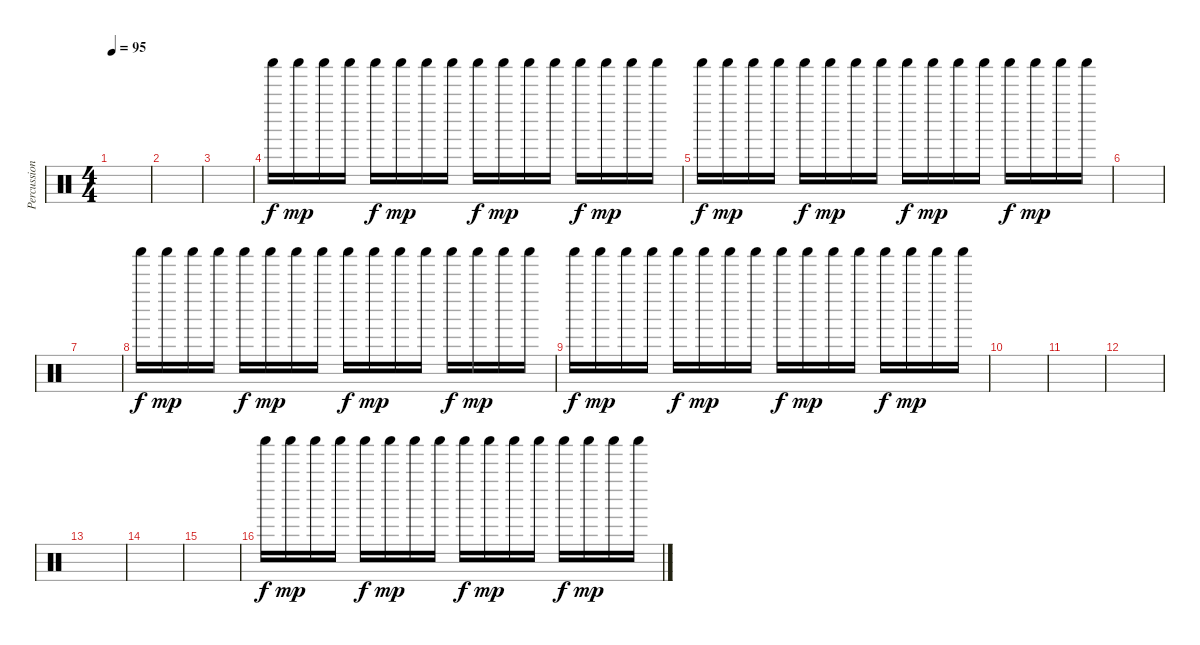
\track ("Percussion" "Percussion") {instrument percussion}
\staff {score}
\articulation defaults
\ts (4 4)
\tempo 95
\clef neutral
\ks c
|
|
|
"Shaker (hit)".16 "Shaker (hit)".16{dy mp} "Shaker (hit)".16 "Shaker (hit)".16 "Shaker (hit)".16{dy f} "Shaker (hit)".16{dy mp} "Shaker (hit)".16 "Shaker (hit)".16 "Shaker (hit)".16{dy f} "Shaker (hit)".16{dy mp} "Shaker (hit)".16 "Shaker (hit)".16 "Shaker (hit)".16{dy f} "Shaker (hit)".16{dy mp} "Shaker (hit)".16 "Shaker (hit)".16 |
"Shaker (hit)".16{dy f} "Shaker (hit)".16{dy mp} "Shaker (hit)".16 "Shaker (hit)".16 "Shaker (hit)".16{dy f} "Shaker (hit)".16{dy mp} "Shaker (hit)".16 "Shaker (hit)".16 "Shaker (hit)".16{dy f} "Shaker (hit)".16{dy mp} "Shaker (hit)".16 "Shaker (hit)".16 "Shaker (hit)".16{dy f} "Shaker (hit)".16{dy mp} "Shaker (hit)".16 "Shaker (hit)".16 |
|
|
"Shaker (hit)".16{dy f} "Shaker (hit)".16{dy mp} "Shaker (hit)".16 "Shaker (hit)".16 "Shaker (hit)".16{dy f} "Shaker (hit)".16{dy mp} "Shaker (hit)".16 "Shaker (hit)".16 "Shaker (hit)".16{dy f} "Shaker (hit)".16{dy mp} "Shaker (hit)".16 "Shaker (hit)".16 "Shaker (hit)".16{dy f} "Shaker (hit)".16{dy mp} "Shaker (hit)".16 "Shaker (hit)".16 |
"Shaker (hit)".16{dy f} "Shaker (hit)".16{dy mp} "Shaker (hit)".16 "Shaker (hit)".16 "Shaker (hit)".16{dy f} "Shaker (hit)".16{dy mp} "Shaker (hit)".16 "Shaker (hit)".16 "Shaker (hit)".16{dy f} "Shaker (hit)".16{dy mp} "Shaker (hit)".16 "Shaker (hit)".16 "Shaker (hit)".16{dy f} "Shaker (hit)".16{dy mp} "Shaker (hit)".16 "Shaker (hit)".16 |
|
|
|
|
|
|
"Shaker (hit)".16{dy f} "Shaker (hit)".16{dy mp} "Shaker (hit)".16 "Shaker (hit)".16 "Shaker (hit)".16{dy f} "Shaker (hit)".16{dy mp} "Shaker (hit)".16 "Shaker (hit)".16 "Shaker (hit)".16{dy f} "Shaker (hit)".16{dy mp} "Shaker (hit)".16 "Shaker (hit)".16 "Shaker (hit)".16{dy f} "Shaker (hit)".16{dy mp} "Shaker (hit)".16 "Shaker (hit)".16
